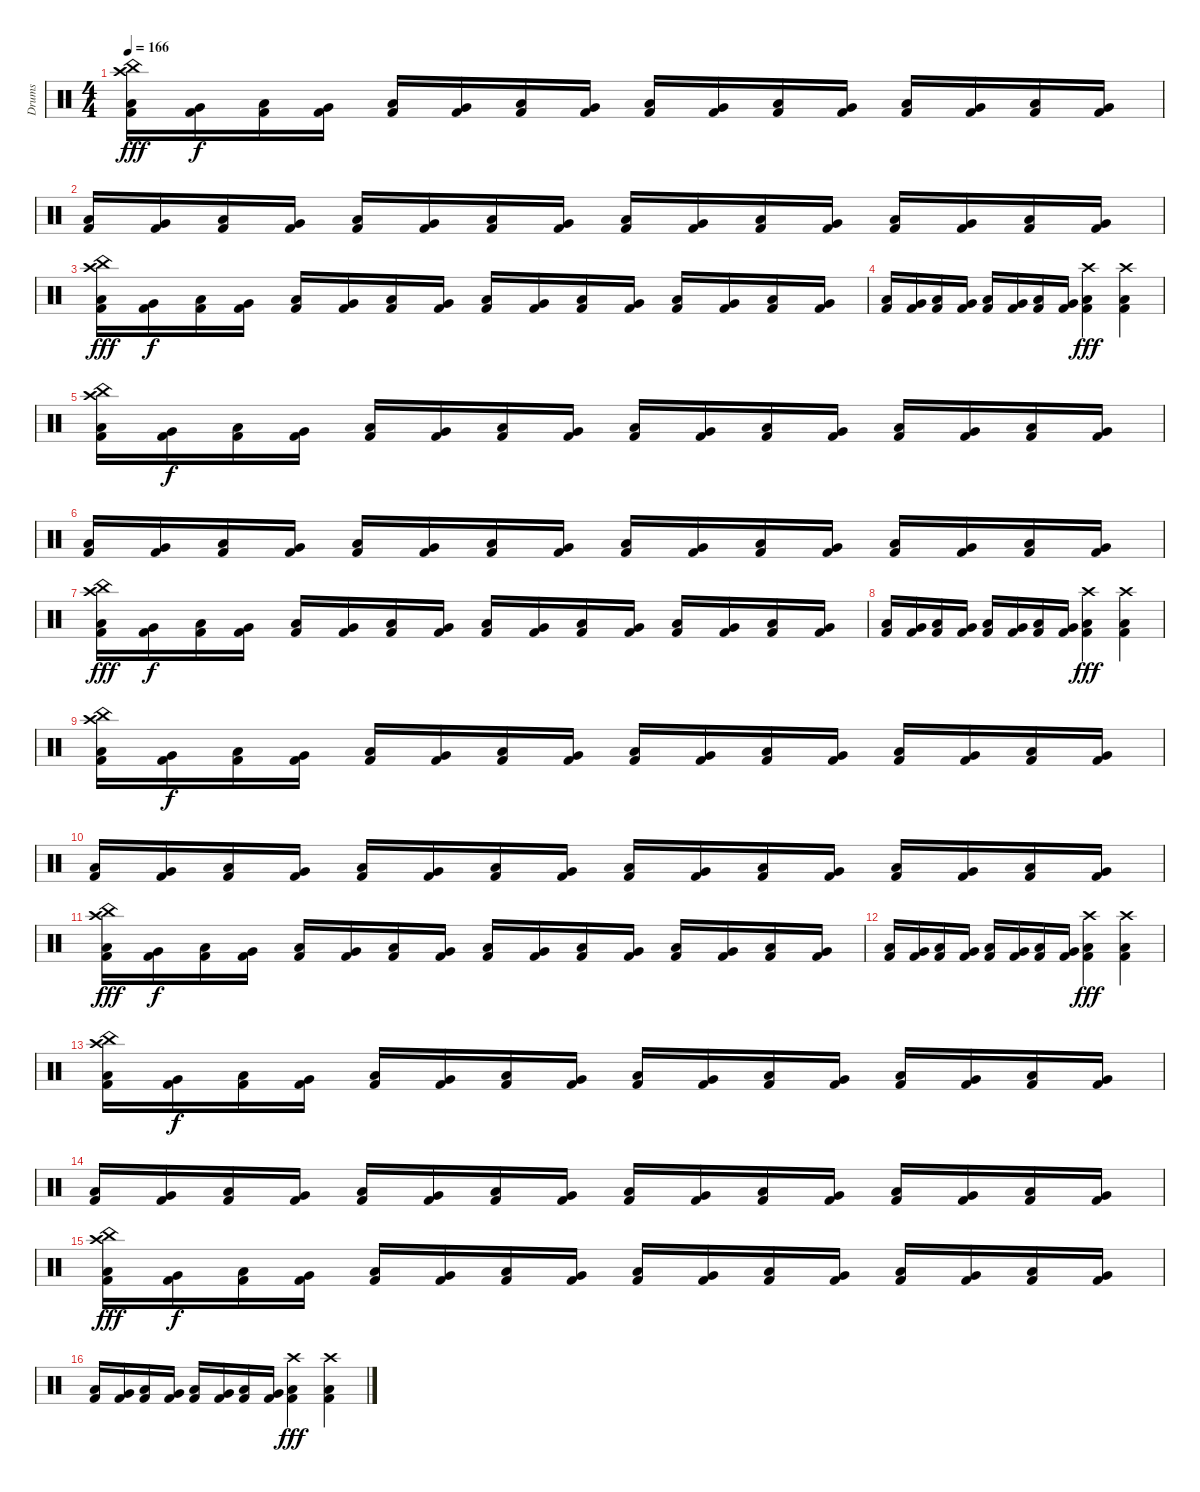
\track ("Drums" "Drums") {instrument percussion}
\staff {score}
\articulation defaults
\ts (4 4)
\tempo 166
\clef neutral
\ks c
("China (hit)" "Crash high (hit)" "Low Tom (hit)" "Kick (hit) 2").16{dy fff} ("Very Low Tom (hit)" "Kick (hit) 2").16{dy f} ("Low Tom (hit)" "Kick (hit) 2").16 ("Very Low Tom (hit)" "Kick (hit) 2").16 ("Low Tom (hit)" "Kick (hit) 2").16 ("Very Low Tom (hit)" "Kick (hit) 2").16 ("Low Tom (hit)" "Kick (hit) 2").16 ("Very Low Tom (hit)" "Kick (hit) 2").16 ("Low Tom (hit)" "Kick (hit) 2").16 ("Very Low Tom (hit)" "Kick (hit) 2").16 ("Low Tom (hit)" "Kick (hit) 2").16 ("Very Low Tom (hit)" "Kick (hit) 2").16 ("Low Tom (hit)" "Kick (hit) 2").16 ("Very Low Tom (hit)" "Kick (hit) 2").16 ("Low Tom (hit)" "Kick (hit) 2").16 ("Very Low Tom (hit)" "Kick (hit) 2").16 |
("Low Tom (hit)" "Kick (hit) 2").16 ("Very Low Tom (hit)" "Kick (hit) 2").16 ("Low Tom (hit)" "Kick (hit) 2").16 ("Very Low Tom (hit)" "Kick (hit) 2").16 ("Low Tom (hit)" "Kick (hit) 2").16 ("Very Low Tom (hit)" "Kick (hit) 2").16 ("Low Tom (hit)" "Kick (hit) 2").16 ("Very Low Tom (hit)" "Kick (hit) 2").16 ("Low Tom (hit)" "Kick (hit) 2").16 ("Very Low Tom (hit)" "Kick (hit) 2").16 ("Low Tom (hit)" "Kick (hit) 2").16 ("Very Low Tom (hit)" "Kick (hit) 2").16 ("Low Tom (hit)" "Kick (hit) 2").16 ("Very Low Tom (hit)" "Kick (hit) 2").16 ("Low Tom (hit)" "Kick (hit) 2").16 ("Very Low Tom (hit)" "Kick (hit) 2").16 |
("China (hit)" "Crash high (hit)" "Low Tom (hit)" "Kick (hit) 2").16{dy fff} ("Very Low Tom (hit)" "Kick (hit) 2").16{dy f} ("Low Tom (hit)" "Kick (hit) 2").16 ("Very Low Tom (hit)" "Kick (hit) 2").16 ("Low Tom (hit)" "Kick (hit) 2").16 ("Very Low Tom (hit)" "Kick (hit) 2").16 ("Low Tom (hit)" "Kick (hit) 2").16 ("Very Low Tom (hit)" "Kick (hit) 2").16 ("Low Tom (hit)" "Kick (hit) 2").16 ("Very Low Tom (hit)" "Kick (hit) 2").16 ("Low Tom (hit)" "Kick (hit) 2").16 ("Very Low Tom (hit)" "Kick (hit) 2").16 ("Low Tom (hit)" "Kick (hit) 2").16 ("Very Low Tom (hit)" "Kick (hit) 2").16 ("Low Tom (hit)" "Kick (hit) 2").16 ("Very Low Tom (hit)" "Kick (hit) 2").16 |
("Low Tom (hit)" "Kick (hit) 2").16 ("Very Low Tom (hit)" "Kick (hit) 2").16 ("Low Tom (hit)" "Kick (hit) 2").16 ("Very Low Tom (hit)" "Kick (hit) 2").16 ("Low Tom (hit)" "Kick (hit) 2").16 ("Very Low Tom (hit)" "Kick (hit) 2").16 ("Low Tom (hit)" "Kick (hit) 2").16 ("Very Low Tom (hit)" "Kick (hit) 2").16 ("Crash high (hit)" "Low Floor Tom (hit)" "Kick (hit) 2").4{dy fff} ("Crash high (hit)" "Low Floor Tom (hit)" "Kick (hit) 2").4 |
("China (hit)" "Crash high (hit)" "Low Tom (hit)" "Kick (hit) 2").16 ("Very Low Tom (hit)" "Kick (hit) 2").16{dy f} ("Low Tom (hit)" "Kick (hit) 2").16 ("Very Low Tom (hit)" "Kick (hit) 2").16 ("Low Tom (hit)" "Kick (hit) 2").16 ("Very Low Tom (hit)" "Kick (hit) 2").16 ("Low Tom (hit)" "Kick (hit) 2").16 ("Very Low Tom (hit)" "Kick (hit) 2").16 ("Low Tom (hit)" "Kick (hit) 2").16 ("Very Low Tom (hit)" "Kick (hit) 2").16 ("Low Tom (hit)" "Kick (hit) 2").16 ("Very Low Tom (hit)" "Kick (hit) 2").16 ("Low Tom (hit)" "Kick (hit) 2").16 ("Very Low Tom (hit)" "Kick (hit) 2").16 ("Low Tom (hit)" "Kick (hit) 2").16 ("Very Low Tom (hit)" "Kick (hit) 2").16 |
("Low Tom (hit)" "Kick (hit) 2").16 ("Very Low Tom (hit)" "Kick (hit) 2").16 ("Low Tom (hit)" "Kick (hit) 2").16 ("Very Low Tom (hit)" "Kick (hit) 2").16 ("Low Tom (hit)" "Kick (hit) 2").16 ("Very Low Tom (hit)" "Kick (hit) 2").16 ("Low Tom (hit)" "Kick (hit) 2").16 ("Very Low Tom (hit)" "Kick (hit) 2").16 ("Low Tom (hit)" "Kick (hit) 2").16 ("Very Low Tom (hit)" "Kick (hit) 2").16 ("Low Tom (hit)" "Kick (hit) 2").16 ("Very Low Tom (hit)" "Kick (hit) 2").16 ("Low Tom (hit)" "Kick (hit) 2").16 ("Very Low Tom (hit)" "Kick (hit) 2").16 ("Low Tom (hit)" "Kick (hit) 2").16 ("Very Low Tom (hit)" "Kick (hit) 2").16 |
("China (hit)" "Crash high (hit)" "Low Tom (hit)" "Kick (hit) 2").16{dy fff} ("Very Low Tom (hit)" "Kick (hit) 2").16{dy f} ("Low Tom (hit)" "Kick (hit) 2").16 ("Very Low Tom (hit)" "Kick (hit) 2").16 ("Low Tom (hit)" "Kick (hit) 2").16 ("Very Low Tom (hit)" "Kick (hit) 2").16 ("Low Tom (hit)" "Kick (hit) 2").16 ("Very Low Tom (hit)" "Kick (hit) 2").16 ("Low Tom (hit)" "Kick (hit) 2").16 ("Very Low Tom (hit)" "Kick (hit) 2").16 ("Low Tom (hit)" "Kick (hit) 2").16 ("Very Low Tom (hit)" "Kick (hit) 2").16 ("Low Tom (hit)" "Kick (hit) 2").16 ("Very Low Tom (hit)" "Kick (hit) 2").16 ("Low Tom (hit)" "Kick (hit) 2").16 ("Very Low Tom (hit)" "Kick (hit) 2").16 |
("Low Tom (hit)" "Kick (hit) 2").16 ("Very Low Tom (hit)" "Kick (hit) 2").16 ("Low Tom (hit)" "Kick (hit) 2").16 ("Very Low Tom (hit)" "Kick (hit) 2").16 ("Low Tom (hit)" "Kick (hit) 2").16 ("Very Low Tom (hit)" "Kick (hit) 2").16 ("Low Tom (hit)" "Kick (hit) 2").16 ("Very Low Tom (hit)" "Kick (hit) 2").16 ("Crash high (hit)" "Low Floor Tom (hit)" "Kick (hit) 2").4{dy fff} ("Crash high (hit)" "Low Floor Tom (hit)" "Kick (hit) 2").4 |
("China (hit)" "Crash high (hit)" "Low Tom (hit)" "Kick (hit) 2").16 ("Very Low Tom (hit)" "Kick (hit) 2").16{dy f} ("Low Tom (hit)" "Kick (hit) 2").16 ("Very Low Tom (hit)" "Kick (hit) 2").16 ("Low Tom (hit)" "Kick (hit) 2").16 ("Very Low Tom (hit)" "Kick (hit) 2").16 ("Low Tom (hit)" "Kick (hit) 2").16 ("Very Low Tom (hit)" "Kick (hit) 2").16 ("Low Tom (hit)" "Kick (hit) 2").16 ("Very Low Tom (hit)" "Kick (hit) 2").16 ("Low Tom (hit)" "Kick (hit) 2").16 ("Very Low Tom (hit)" "Kick (hit) 2").16 ("Low Tom (hit)" "Kick (hit) 2").16 ("Very Low Tom (hit)" "Kick (hit) 2").16 ("Low Tom (hit)" "Kick (hit) 2").16 ("Very Low Tom (hit)" "Kick (hit) 2").16 |
("Low Tom (hit)" "Kick (hit) 2").16 ("Very Low Tom (hit)" "Kick (hit) 2").16 ("Low Tom (hit)" "Kick (hit) 2").16 ("Very Low Tom (hit)" "Kick (hit) 2").16 ("Low Tom (hit)" "Kick (hit) 2").16 ("Very Low Tom (hit)" "Kick (hit) 2").16 ("Low Tom (hit)" "Kick (hit) 2").16 ("Very Low Tom (hit)" "Kick (hit) 2").16 ("Low Tom (hit)" "Kick (hit) 2").16 ("Very Low Tom (hit)" "Kick (hit) 2").16 ("Low Tom (hit)" "Kick (hit) 2").16 ("Very Low Tom (hit)" "Kick (hit) 2").16 ("Low Tom (hit)" "Kick (hit) 2").16 ("Very Low Tom (hit)" "Kick (hit) 2").16 ("Low Tom (hit)" "Kick (hit) 2").16 ("Very Low Tom (hit)" "Kick (hit) 2").16 |
("China (hit)" "Crash high (hit)" "Low Tom (hit)" "Kick (hit) 2").16{dy fff} ("Very Low Tom (hit)" "Kick (hit) 2").16{dy f} ("Low Tom (hit)" "Kick (hit) 2").16 ("Very Low Tom (hit)" "Kick (hit) 2").16 ("Low Tom (hit)" "Kick (hit) 2").16 ("Very Low Tom (hit)" "Kick (hit) 2").16 ("Low Tom (hit)" "Kick (hit) 2").16 ("Very Low Tom (hit)" "Kick (hit) 2").16 ("Low Tom (hit)" "Kick (hit) 2").16 ("Very Low Tom (hit)" "Kick (hit) 2").16 ("Low Tom (hit)" "Kick (hit) 2").16 ("Very Low Tom (hit)" "Kick (hit) 2").16 ("Low Tom (hit)" "Kick (hit) 2").16 ("Very Low Tom (hit)" "Kick (hit) 2").16 ("Low Tom (hit)" "Kick (hit) 2").16 ("Very Low Tom (hit)" "Kick (hit) 2").16 |
("Low Tom (hit)" "Kick (hit) 2").16 ("Very Low Tom (hit)" "Kick (hit) 2").16 ("Low Tom (hit)" "Kick (hit) 2").16 ("Very Low Tom (hit)" "Kick (hit) 2").16 ("Low Tom (hit)" "Kick (hit) 2").16 ("Very Low Tom (hit)" "Kick (hit) 2").16 ("Low Tom (hit)" "Kick (hit) 2").16 ("Very Low Tom (hit)" "Kick (hit) 2").16 ("Crash high (hit)" "Low Floor Tom (hit)" "Kick (hit) 2").4{dy fff} ("Crash high (hit)" "Low Floor Tom (hit)" "Kick (hit) 2").4 |
("China (hit)" "Crash high (hit)" "Low Tom (hit)" "Kick (hit) 2").16 ("Very Low Tom (hit)" "Kick (hit) 2").16{dy f} ("Low Tom (hit)" "Kick (hit) 2").16 ("Very Low Tom (hit)" "Kick (hit) 2").16 ("Low Tom (hit)" "Kick (hit) 2").16 ("Very Low Tom (hit)" "Kick (hit) 2").16 ("Low Tom (hit)" "Kick (hit) 2").16 ("Very Low Tom (hit)" "Kick (hit) 2").16 ("Low Tom (hit)" "Kick (hit) 2").16 ("Very Low Tom (hit)" "Kick (hit) 2").16 ("Low Tom (hit)" "Kick (hit) 2").16 ("Very Low Tom (hit)" "Kick (hit) 2").16 ("Low Tom (hit)" "Kick (hit) 2").16 ("Very Low Tom (hit)" "Kick (hit) 2").16 ("Low Tom (hit)" "Kick (hit) 2").16 ("Very Low Tom (hit)" "Kick (hit) 2").16 |
("Low Tom (hit)" "Kick (hit) 2").16 ("Very Low Tom (hit)" "Kick (hit) 2").16 ("Low Tom (hit)" "Kick (hit) 2").16 ("Very Low Tom (hit)" "Kick (hit) 2").16 ("Low Tom (hit)" "Kick (hit) 2").16 ("Very Low Tom (hit)" "Kick (hit) 2").16 ("Low Tom (hit)" "Kick (hit) 2").16 ("Very Low Tom (hit)" "Kick (hit) 2").16 ("Low Tom (hit)" "Kick (hit) 2").16 ("Very Low Tom (hit)" "Kick (hit) 2").16 ("Low Tom (hit)" "Kick (hit) 2").16 ("Very Low Tom (hit)" "Kick (hit) 2").16 ("Low Tom (hit)" "Kick (hit) 2").16 ("Very Low Tom (hit)" "Kick (hit) 2").16 ("Low Tom (hit)" "Kick (hit) 2").16 ("Very Low Tom (hit)" "Kick (hit) 2").16 |
("China (hit)" "Crash high (hit)" "Low Tom (hit)" "Kick (hit) 2").16{dy fff} ("Very Low Tom (hit)" "Kick (hit) 2").16{dy f} ("Low Tom (hit)" "Kick (hit) 2").16 ("Very Low Tom (hit)" "Kick (hit) 2").16 ("Low Tom (hit)" "Kick (hit) 2").16 ("Very Low Tom (hit)" "Kick (hit) 2").16 ("Low Tom (hit)" "Kick (hit) 2").16 ("Very Low Tom (hit)" "Kick (hit) 2").16 ("Low Tom (hit)" "Kick (hit) 2").16 ("Very Low Tom (hit)" "Kick (hit) 2").16 ("Low Tom (hit)" "Kick (hit) 2").16 ("Very Low Tom (hit)" "Kick (hit) 2").16 ("Low Tom (hit)" "Kick (hit) 2").16 ("Very Low Tom (hit)" "Kick (hit) 2").16 ("Low Tom (hit)" "Kick (hit) 2").16 ("Very Low Tom (hit)" "Kick (hit) 2").16 |
("Low Tom (hit)" "Kick (hit) 2").16 ("Very Low Tom (hit)" "Kick (hit) 2").16 ("Low Tom (hit)" "Kick (hit) 2").16 ("Very Low Tom (hit)" "Kick (hit) 2").16 ("Low Tom (hit)" "Kick (hit) 2").16 ("Very Low Tom (hit)" "Kick (hit) 2").16 ("Low Tom (hit)" "Kick (hit) 2").16 ("Very Low Tom (hit)" "Kick (hit) 2").16 ("Crash high (hit)" "Low Floor Tom (hit)" "Kick (hit) 2").4{dy fff} ("Crash high (hit)" "Low Floor Tom (hit)" "Kick (hit) 2").4
